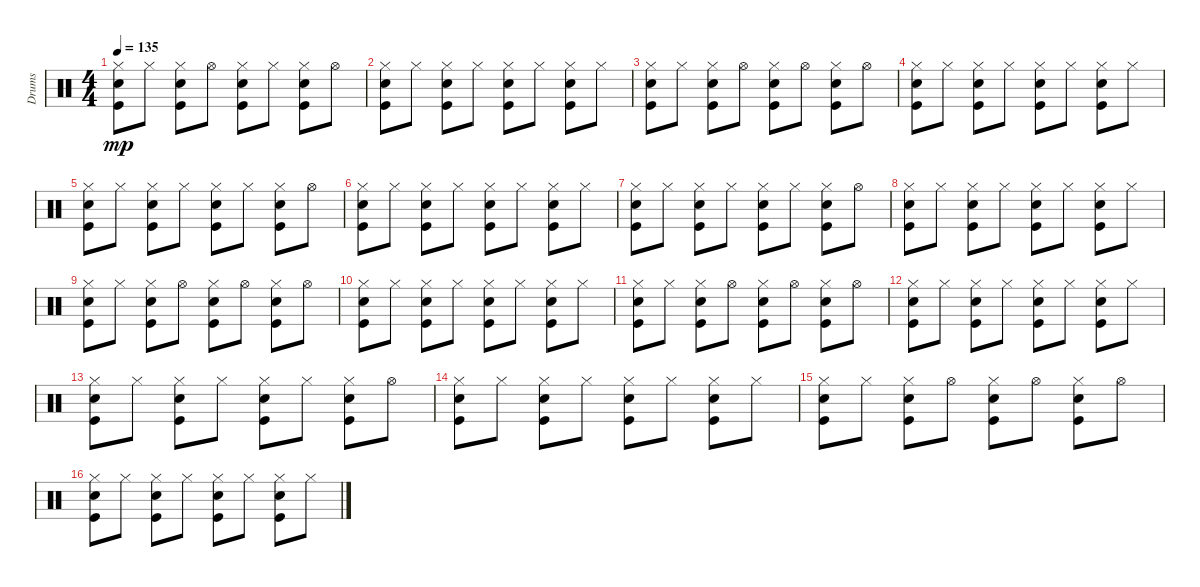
\track ("Drums   " "Drums   ") {instrument percussion}
\staff {score}
\articulation defaults
\ts (4 4)
\tempo 135
\clef neutral
\ks c
("Snare (hit) 2" "Hi-Hat (closed)" "Kick (hit)").8{dy mp} "Hi-Hat (closed)".8 ("Snare (hit) 2" "Hi-Hat (closed)" "Kick (hit)").8 "Hi-Hat (open)".8 ("Snare (hit) 2" "Hi-Hat (closed)" "Kick (hit)").8 "Hi-Hat (closed)".8 ("Snare (hit) 2" "Hi-Hat (closed)" "Kick (hit)").8 "Hi-Hat (open)".8 |
("Snare (hit) 2" "Hi-Hat (closed)" "Kick (hit)").8 "Hi-Hat (closed)".8 ("Snare (hit) 2" "Hi-Hat (closed)" "Kick (hit)").8 "Hi-Hat (closed)".8 ("Snare (hit) 2" "Hi-Hat (closed)" "Kick (hit)").8 "Hi-Hat (closed)".8 ("Snare (hit) 2" "Hi-Hat (closed)" "Kick (hit)").8 "Hi-Hat (closed)".8 |
("Snare (hit) 2" "Hi-Hat (closed)" "Kick (hit)").8 "Hi-Hat (closed)".8 ("Snare (hit) 2" "Hi-Hat (closed)" "Kick (hit)").8 "Hi-Hat (open)".8 ("Snare (hit) 2" "Hi-Hat (closed)" "Kick (hit)").8 "Hi-Hat (open)".8 ("Snare (hit) 2" "Hi-Hat (closed)" "Kick (hit)").8 "Hi-Hat (open)".8 |
("Snare (hit) 2" "Hi-Hat (closed)" "Kick (hit)").8 "Hi-Hat (closed)".8 ("Snare (hit) 2" "Hi-Hat (closed)" "Kick (hit)").8 "Hi-Hat (closed)".8 ("Snare (hit) 2" "Hi-Hat (closed)" "Kick (hit)").8 "Hi-Hat (closed)".8 ("Snare (hit) 2" "Hi-Hat (closed)" "Kick (hit)").8 "Hi-Hat (closed)".8 |
("Snare (hit) 2" "Hi-Hat (closed)" "Kick (hit)").8 "Hi-Hat (closed)".8 ("Snare (hit) 2" "Hi-Hat (closed)" "Kick (hit)").8 "Hi-Hat (closed)".8 ("Snare (hit) 2" "Hi-Hat (closed)" "Kick (hit)").8 "Hi-Hat (closed)".8 ("Snare (hit) 2" "Hi-Hat (closed)" "Kick (hit)").8 "Hi-Hat (open)".8 |
("Snare (hit) 2" "Hi-Hat (closed)" "Kick (hit)").8 "Hi-Hat (closed)".8 ("Snare (hit) 2" "Hi-Hat (closed)" "Kick (hit)").8 "Hi-Hat (closed)".8 ("Snare (hit) 2" "Hi-Hat (closed)" "Kick (hit)").8 "Hi-Hat (closed)".8 ("Snare (hit) 2" "Hi-Hat (closed)" "Kick (hit)").8 "Hi-Hat (closed)".8 |
("Snare (hit) 2" "Hi-Hat (closed)" "Kick (hit)").8 "Hi-Hat (closed)".8 ("Snare (hit) 2" "Hi-Hat (closed)" "Kick (hit)").8 "Hi-Hat (closed)".8 ("Snare (hit) 2" "Hi-Hat (closed)" "Kick (hit)").8 "Hi-Hat (closed)".8 ("Snare (hit) 2" "Hi-Hat (closed)" "Kick (hit)").8 "Hi-Hat (open)".8 |
("Snare (hit) 2" "Hi-Hat (closed)" "Kick (hit)").8 "Hi-Hat (closed)".8 ("Snare (hit) 2" "Hi-Hat (closed)" "Kick (hit)").8 "Hi-Hat (closed)".8 ("Snare (hit) 2" "Hi-Hat (closed)" "Kick (hit)").8 "Hi-Hat (closed)".8 ("Snare (hit) 2" "Hi-Hat (closed)" "Kick (hit)").8 "Hi-Hat (closed)".8 |
("Snare (hit) 2" "Hi-Hat (closed)" "Kick (hit)").8 "Hi-Hat (closed)".8 ("Snare (hit) 2" "Hi-Hat (closed)" "Kick (hit)").8 "Hi-Hat (open)".8 ("Snare (hit) 2" "Hi-Hat (closed)" "Kick (hit)").8 "Hi-Hat (open)".8 ("Snare (hit) 2" "Hi-Hat (closed)" "Kick (hit)").8 "Hi-Hat (open)".8 |
("Snare (hit) 2" "Hi-Hat (closed)" "Kick (hit)").8 "Hi-Hat (closed)".8 ("Snare (hit) 2" "Hi-Hat (closed)" "Kick (hit)").8 "Hi-Hat (closed)".8 ("Snare (hit) 2" "Hi-Hat (closed)" "Kick (hit)").8 "Hi-Hat (closed)".8 ("Snare (hit) 2" "Hi-Hat (closed)" "Kick (hit)").8 "Hi-Hat (closed)".8 |
("Snare (hit) 2" "Hi-Hat (closed)" "Kick (hit)").8 "Hi-Hat (closed)".8 ("Snare (hit) 2" "Hi-Hat (closed)" "Kick (hit)").8 "Hi-Hat (open)".8 ("Snare (hit) 2" "Hi-Hat (closed)" "Kick (hit)").8 "Hi-Hat (open)".8 ("Snare (hit) 2" "Hi-Hat (closed)" "Kick (hit)").8 "Hi-Hat (open)".8 |
("Snare (hit) 2" "Hi-Hat (closed)" "Kick (hit)").8 "Hi-Hat (closed)".8 ("Snare (hit) 2" "Hi-Hat (closed)" "Kick (hit)").8 "Hi-Hat (closed)".8 ("Snare (hit) 2" "Hi-Hat (closed)" "Kick (hit)").8 "Hi-Hat (closed)".8 ("Snare (hit) 2" "Hi-Hat (closed)" "Kick (hit)").8 "Hi-Hat (closed)".8 |
("Snare (hit) 2" "Hi-Hat (closed)" "Kick (hit)").8 "Hi-Hat (closed)".8 ("Snare (hit) 2" "Hi-Hat (closed)" "Kick (hit)").8 "Hi-Hat (closed)".8 ("Snare (hit) 2" "Hi-Hat (closed)" "Kick (hit)").8 "Hi-Hat (closed)".8 ("Snare (hit) 2" "Hi-Hat (closed)" "Kick (hit)").8 "Hi-Hat (open)".8 |
("Snare (hit) 2" "Hi-Hat (closed)" "Kick (hit)").8 "Hi-Hat (closed)".8 ("Snare (hit) 2" "Hi-Hat (closed)" "Kick (hit)").8 "Hi-Hat (closed)".8 ("Snare (hit) 2" "Hi-Hat (closed)" "Kick (hit)").8 "Hi-Hat (closed)".8 ("Snare (hit) 2" "Hi-Hat (closed)" "Kick (hit)").8 "Hi-Hat (closed)".8 |
("Snare (hit) 2" "Hi-Hat (closed)" "Kick (hit)").8 "Hi-Hat (closed)".8 ("Snare (hit) 2" "Hi-Hat (closed)" "Kick (hit)").8 "Hi-Hat (open)".8 ("Snare (hit) 2" "Hi-Hat (closed)" "Kick (hit)").8 "Hi-Hat (open)".8 ("Snare (hit) 2" "Hi-Hat (closed)" "Kick (hit)").8 "Hi-Hat (open)".8 |
("Snare (hit) 2" "Hi-Hat (closed)" "Kick (hit)").8 "Hi-Hat (closed)".8 ("Snare (hit) 2" "Hi-Hat (closed)" "Kick (hit)").8 "Hi-Hat (closed)".8 ("Snare (hit) 2" "Hi-Hat (closed)" "Kick (hit)").8 "Hi-Hat (closed)".8 ("Snare (hit) 2" "Hi-Hat (closed)" "Kick (hit)").8 "Hi-Hat (closed)".8
